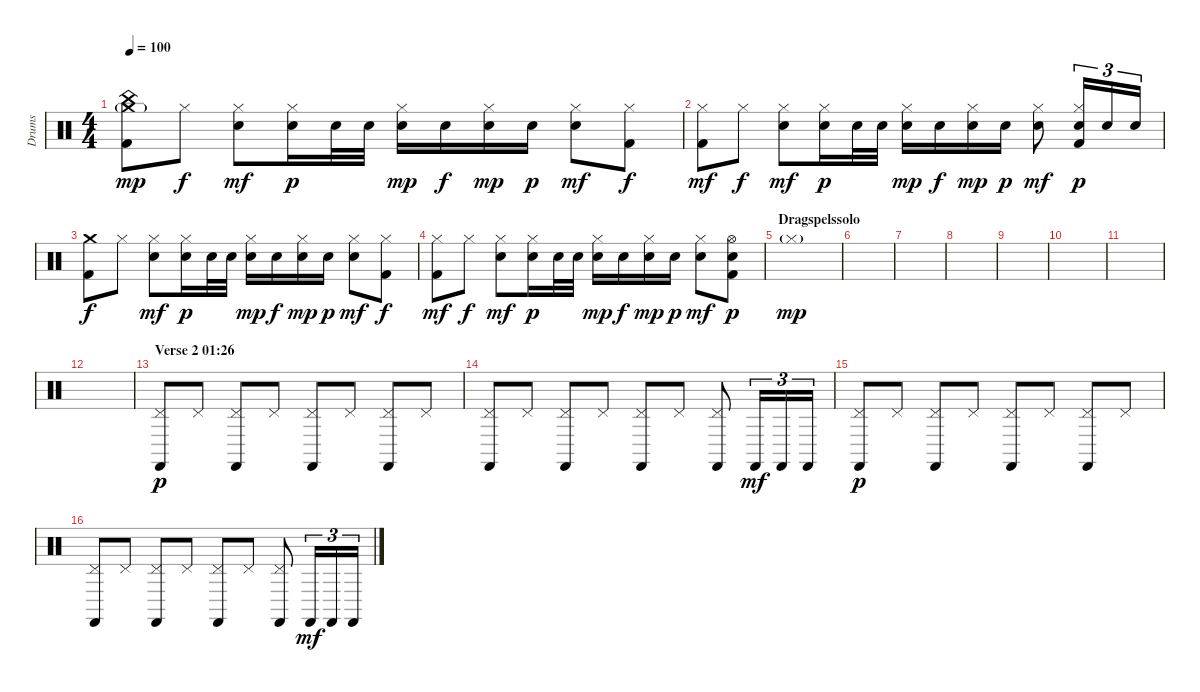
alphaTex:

\track ("Drums" "Drums") {instrument percussion}
\staff {score}
\articulation defaults
\ts (4 4)
\tempo 100
\clef neutral
\ks c
("China (hit)" "Crash medium (hit)"{g} "Kick (hit) 2").8{dy mp} "Hi-Hat (closed)".8{dy f} ("Hi-Hat (closed)" "Electric Snare (hit)").8{dy mf} ("Hi-Hat (closed)" "Electric Snare (hit)").16{dy p} "Electric Snare (hit)".32 "Electric Snare (hit)".32 ("Hi-Hat (closed)" "Electric Snare (hit)").16{dy mp} "Electric Snare (hit)".16{dy f} ("Hi-Hat (closed)" "Electric Snare (hit)").16{dy mp} "Electric Snare (hit)".16{dy p} ("Hi-Hat (closed)" "Electric Snare (hit)").8{dy mf} ("Hi-Hat (closed)" "Kick (hit) 2").8{dy f} |
("Hi-Hat (closed)" "Kick (hit) 2").8{dy mf} "Hi-Hat (closed)".8{dy f} ("Hi-Hat (closed)" "Electric Snare (hit)").8{dy mf} ("Hi-Hat (closed)" "Electric Snare (hit)").16{dy p} "Electric Snare (hit)".32 "Electric Snare (hit)".32 ("Hi-Hat (closed)" "Electric Snare (hit)").16{dy mp} "Electric Snare (hit)".16{dy f} ("Hi-Hat (closed)" "Electric Snare (hit)").16{dy mp} "Electric Snare (hit)".16{dy p} ("Hi-Hat (closed)" "Electric Snare (hit)").8{dy mf} ("Hi-Hat (closed)" "Electric Snare (hit)" "Kick (hit) 2").16{tu (3 2) dy p} "Electric Snare (hit)".16{tu (3 2)} "Electric Snare (hit)".16{tu (3 2)} |
("Crash medium (hit)" "Kick (hit) 2").8{dy f} "Hi-Hat (closed)".8 ("Hi-Hat (closed)" "Electric Snare (hit)").8{dy mf} ("Hi-Hat (closed)" "Electric Snare (hit)").16{dy p} "Electric Snare (hit)".32 "Electric Snare (hit)".32 ("Hi-Hat (closed)" "Electric Snare (hit)").16{dy mp} "Electric Snare (hit)".16{dy f} ("Hi-Hat (closed)" "Electric Snare (hit)").16{dy mp} "Electric Snare (hit)".16{dy p} ("Hi-Hat (closed)" "Electric Snare (hit)").8{dy mf} ("Hi-Hat (closed)" "Kick (hit) 2").8{dy f} |
("Hi-Hat (closed)" "Kick (hit) 2").8{dy mf} "Hi-Hat (closed)".8{dy f} ("Hi-Hat (closed)" "Electric Snare (hit)").8{dy mf} ("Hi-Hat (closed)" "Electric Snare (hit)").16{dy p} "Electric Snare (hit)".32 "Electric Snare (hit)".32 ("Hi-Hat (closed)" "Electric Snare (hit)").16{dy mp} "Electric Snare (hit)".16{dy f} ("Hi-Hat (closed)" "Electric Snare (hit)").16{dy mp} "Electric Snare (hit)".16{dy p} ("Hi-Hat (closed)" "Electric Snare (hit)").8{dy mf} ("Hi-Hat (open)" "Electric Snare (hit)" "Kick (hit) 2").8{dy p} |
\section ("" "Dragspelssolo")
"Hi-Hat (closed)"{g}.1{dy mp} |
|
|
|
|
|
|
|
\section ("" "Verse 2 01:26")
("Castanets (hit)" "Pedal Hi-Hat (hit)").8{dy p} "Pedal Hi-Hat (hit)".8 ("Castanets (hit)" "Pedal Hi-Hat (hit)").8 "Pedal Hi-Hat (hit)".8 ("Castanets (hit)" "Pedal Hi-Hat (hit)").8 "Pedal Hi-Hat (hit)".8 ("Castanets (hit)" "Pedal Hi-Hat (hit)").8 "Pedal Hi-Hat (hit)".8 |
("Castanets (hit)" "Pedal Hi-Hat (hit)").8 "Pedal Hi-Hat (hit)".8 ("Castanets (hit)" "Pedal Hi-Hat (hit)").8 "Pedal Hi-Hat (hit)".8 ("Castanets (hit)" "Pedal Hi-Hat (hit)").8 "Pedal Hi-Hat (hit)".8 ("Castanets (hit)" "Pedal Hi-Hat (hit)").8 "Castanets (hit)".16{tu (3 2) dy mf} "Castanets (hit)".16{tu (3 2)} "Castanets (hit)".16{tu (3 2)} |
("Castanets (hit)" "Pedal Hi-Hat (hit)").8{dy p} "Pedal Hi-Hat (hit)".8 ("Castanets (hit)" "Pedal Hi-Hat (hit)").8 "Pedal Hi-Hat (hit)".8 ("Castanets (hit)" "Pedal Hi-Hat (hit)").8 "Pedal Hi-Hat (hit)".8 ("Castanets (hit)" "Pedal Hi-Hat (hit)").8 "Pedal Hi-Hat (hit)".8 |
("Castanets (hit)" "Pedal Hi-Hat (hit)").8 "Pedal Hi-Hat (hit)".8 ("Castanets (hit)" "Pedal Hi-Hat (hit)").8 "Pedal Hi-Hat (hit)".8 ("Castanets (hit)" "Pedal Hi-Hat (hit)").8 "Pedal Hi-Hat (hit)".8 ("Castanets (hit)" "Pedal Hi-Hat (hit)").8 "Castanets (hit)".16{tu (3 2) dy mf} "Castanets (hit)".16{tu (3 2)} "Castanets (hit)".16{tu (3 2)}
